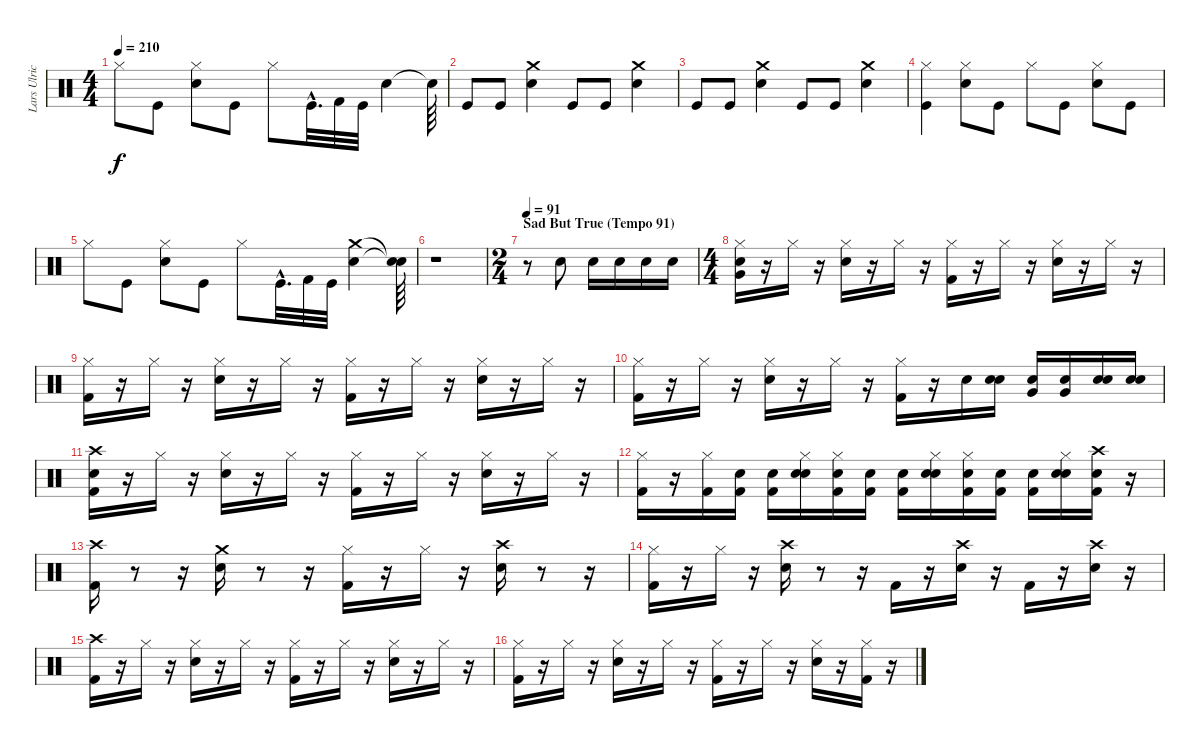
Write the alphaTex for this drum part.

\track ("Lars Ulrich (Drums)" "Lars Ulric") {instrument percussion}
\staff {score}
\articulation defaults
\ts (4 4)
\tempo 210
\clef neutral
\ks c "Hi-Hat (closed)".8{dy f} "Kick (hit)".8
("Snare (hit) 2" "Hi-Hat (closed)").8 "Kick (hit)".8 "Hi-Hat (closed)".8 "Kick (hit)"{hac}.32{d} "Kick (hit) 2".32 "Kick (hit)".32 "Snare (hit) 2".4 "Snare (hit)"{t}.64 |
"Kick (hit)".8 "Kick (hit)".8 ("Crash medium (hit)" "Snare (hit) 2").4 "Kick (hit)".8 "Kick (hit)".8 ("Snare (hit) 2" "Crash medium (hit)").4 |
"Kick (hit)".8 "Kick (hit)".8 ("Snare (hit) 2" "Crash medium (hit)").4 "Kick (hit)".8 "Kick (hit)".8 ("Snare (hit) 2" "Crash medium (hit)").4 |
("Hi-Hat (closed)" "Kick (hit)").4 ("Snare (hit) 2" "Hi-Hat (closed)").8 "Kick (hit)".8 "Hi-Hat (closed)".8 "Kick (hit)".8 ("Snare (hit) 2" "Hi-Hat (closed)").8 "Kick (hit)".8 |
"Hi-Hat (closed)".8 "Kick (hit)".8 ("Snare (hit) 2" "Hi-Hat (closed)").8 "Kick (hit)".8 "Hi-Hat (closed)".8 "Kick (hit)"{hac}.32{d} "Kick (hit) 2".32 "Kick (hit)".32 ("Crash medium (hit)" "Snare (hit) 2").4 ("Snare (hit)"{t} "Snare (hit)"{t}).64 |
r.1 |
\ts (2 4)
\section ("" "Sad But True (Tempo 91)")
\tempo 91
r.8 "Snare (hit) 2".8 "Snare (hit) 2".16 "Snare (hit) 2".16 "Snare (hit) 2".16 "Snare (hit) 2".16 |
\ts (4 4)
("Snare (hit)" "Hi-Hat (closed)" "Very Low Tom (hit)").16 r.16 "Hi-Hat (closed)".16 r.16 ("Snare (hit) 2" "Hi-Hat (closed)").16 r.16 "Hi-Hat (closed)".16 r.16 ("Kick (hit) 2" "Hi-Hat (closed)").16 r.16 "Hi-Hat (closed)".16 r.16 ("Snare (hit) 2" "Hi-Hat (closed)").16 r.16 "Hi-Hat (closed)".16 r.16 |
("Kick (hit) 2" "Hi-Hat (closed)").16 r.16 "Hi-Hat (closed)".16 r.16 ("Snare (hit) 2" "Hi-Hat (closed)").16 r.16 "Hi-Hat (closed)".16 r.16 ("Kick (hit) 2" "Hi-Hat (closed)").16 r.16 "Hi-Hat (closed)".16 r.16 ("Snare (hit) 2" "Hi-Hat (closed)").16 r.16 "Hi-Hat (closed)".16 r.16 |
("Kick (hit) 2" "Hi-Hat (closed)").16 r.16 "Hi-Hat (closed)".16 r.16 ("Snare (hit) 2" "Hi-Hat (closed)").16 r.16 "Hi-Hat (closed)".16 r.16 ("Kick (hit) 2" "Hi-Hat (closed)").16 r.16 "Snare (hit) 2".16 ("Snare (hit)" "Snare (hit) 2").16 ("Snare (hit)" "Very Low Tom (hit)").16 ("Snare (hit)" "Very Low Tom (hit)").16 ("Snare (hit)" "Snare (hit) 2").16 ("Snare (hit)" "Snare (hit) 2").16 |
("Snare (hit)" "Kick (hit) 2" "Crash high (hit)").16 r.16 "Hi-Hat (closed)".16 r.16 ("Snare (hit) 2" "Hi-Hat (closed)").16 r.16 "Hi-Hat (closed)".16 r.16 ("Kick (hit) 2" "Hi-Hat (closed)").16 r.16 "Hi-Hat (closed)".16 r.16 ("Snare (hit) 2" "Hi-Hat (closed)").16 r.16 "Hi-Hat (closed)".16 r.16 |
("Kick (hit) 2" "Hi-Hat (closed)").16 r.16 ("Kick (hit) 2" "Hi-Hat (closed)").16 ("Snare (hit)" "Kick (hit) 2").16 ("Snare (hit)" "Kick (hit) 2").16 ("Snare (hit)" "Snare (hit) 2" "Hi-Hat (closed)").16 ("Snare (hit)" "Kick (hit) 2" "Hi-Hat (closed)").16 ("Snare (hit)" "Kick (hit) 2").16 ("Snare (hit)" "Kick (hit) 2").16 ("Snare (hit)" "Snare (hit) 2" "Hi-Hat (closed)").16 ("Snare (hit)" "Kick (hit) 2" "Hi-Hat (closed)").16 ("Snare (hit)" "Kick (hit) 2").16 ("Snare (hit)" "Kick (hit) 2").16 ("Snare (hit)" "Snare (hit) 2" "Hi-Hat (closed)").16 ("Snare (hit)" "Kick (hit) 2" "Crash high (hit)").16 r.16 |
("Kick (hit) 2" "Crash high (hit)").16 r.8 r.16 ("Snare (hit) 2" "Crash medium (hit)").16 r.8 r.16 ("Kick (hit) 2" "Hi-Hat (closed)").16 r.16 "Hi-Hat (closed)".16 r.16 ("Snare (hit) 2" "Crash high (hit)").16 r.8 r.16 |
("Kick (hit) 2" "Hi-Hat (closed)").16 r.16 "Hi-Hat (closed)".16 r.16 ("Snare (hit) 2" "Crash high (hit)").16 r.8 r.16 "Kick (hit) 2".16 r.16 ("Snare (hit) 2" "Crash high (hit)").16 r.16 "Kick (hit) 2".16 r.16 ("Snare (hit) 2" "Crash high (hit)").16 r.16 |
("Kick (hit) 2" "Crash high (hit)").16 r.16 "Hi-Hat (closed)".16 r.16 ("Snare (hit) 2" "Hi-Hat (closed)").16 r.16 "Hi-Hat (closed)".16 r.16 ("Kick (hit) 2" "Hi-Hat (closed)").16 r.16 "Hi-Hat (closed)".16 r.16 ("Snare (hit) 2" "Hi-Hat (closed)").16 r.16 "Hi-Hat (closed)".16 r.16 |
("Kick (hit) 2" "Hi-Hat (closed)").16 r.16 "Hi-Hat (closed)".16 r.16 ("Snare (hit) 2" "Hi-Hat (closed)").16 r.16 "Hi-Hat (closed)".16 r.16 ("Kick (hit) 2" "Hi-Hat (closed)").16 r.16 "Hi-Hat (closed)".16 r.16 ("Snare (hit) 2" "Hi-Hat (closed)").16 r.16 ("Kick (hit) 2" "Hi-Hat (closed)").16 r.16
